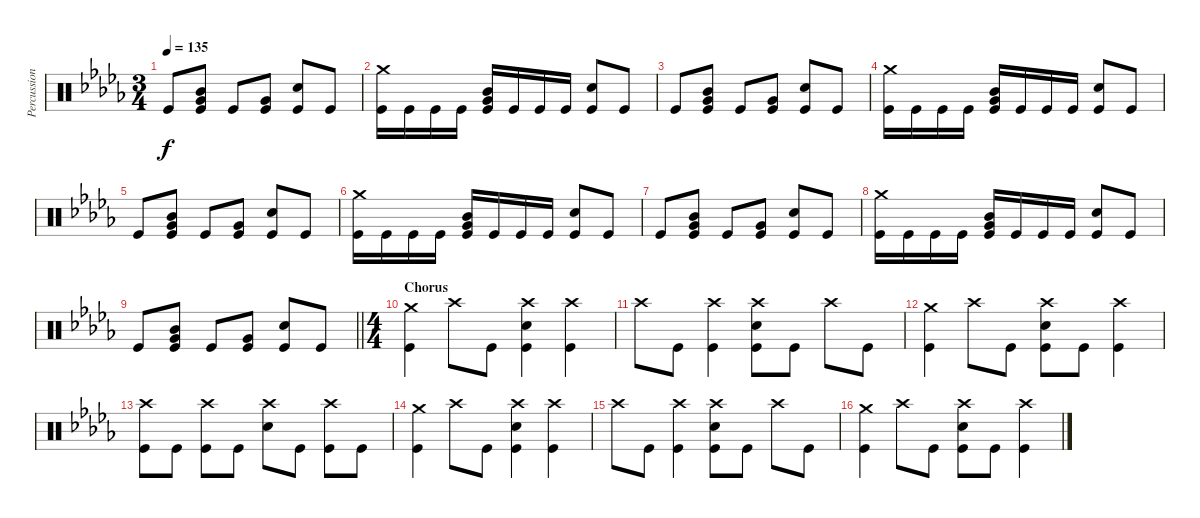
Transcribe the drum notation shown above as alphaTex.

\track ("Percussion" "Percussion") {instrument percussion}
\staff {score}
\articulation defaults
\ts (3 4)
\tempo 135
\clef neutral
\ks db "Kick (hit)".8{dy f}
("Mid Tom (hit)" "Very Low Tom (hit)" "Kick (hit)").8 "Kick (hit)".8 ("Very Low Tom (hit)" "Kick (hit)").8 ("Electric Snare (hit)" "Kick (hit)").8 "Kick (hit)".8 |
("Crash medium (hit)" "Kick (hit)").16 "Kick (hit)".16 "Kick (hit)".16 "Kick (hit)".16 ("Mid Tom (hit)" "Very Low Tom (hit)" "Kick (hit)").16 "Kick (hit)".16 "Kick (hit)".16 "Kick (hit)".16 ("Electric Snare (hit)" "Kick (hit)").8 "Kick (hit)".8 |
"Kick (hit)".8 ("Mid Tom (hit)" "Very Low Tom (hit)" "Kick (hit)").8 "Kick (hit)".8 ("Very Low Tom (hit)" "Kick (hit)").8 ("Electric Snare (hit)" "Kick (hit)").8 "Kick (hit)".8 |
("Crash medium (hit)" "Kick (hit)").16 "Kick (hit)".16 "Kick (hit)".16 "Kick (hit)".16 ("Mid Tom (hit)" "Very Low Tom (hit)" "Kick (hit)").16 "Kick (hit)".16 "Kick (hit)".16 "Kick (hit)".16 ("Electric Snare (hit)" "Kick (hit)").8 "Kick (hit)".8 |
"Kick (hit)".8 ("Mid Tom (hit)" "Very Low Tom (hit)" "Kick (hit)").8 "Kick (hit)".8 ("Very Low Tom (hit)" "Kick (hit)").8 ("Electric Snare (hit)" "Kick (hit)").8 "Kick (hit)".8 |
("Crash medium (hit)" "Kick (hit)").16 "Kick (hit)".16 "Kick (hit)".16 "Kick (hit)".16 ("Mid Tom (hit)" "Very Low Tom (hit)" "Kick (hit)").16 "Kick (hit)".16 "Kick (hit)".16 "Kick (hit)".16 ("Electric Snare (hit)" "Kick (hit)").8 "Kick (hit)".8 |
"Kick (hit)".8 ("Mid Tom (hit)" "Very Low Tom (hit)" "Kick (hit)").8 "Kick (hit)".8 ("Very Low Tom (hit)" "Kick (hit)").8 ("Electric Snare (hit)" "Kick (hit)").8 "Kick (hit)".8 |
("Crash medium (hit)" "Kick (hit)").16 "Kick (hit)".16 "Kick (hit)".16 "Kick (hit)".16 ("Mid Tom (hit)" "Very Low Tom (hit)" "Kick (hit)").16 "Kick (hit)".16 "Kick (hit)".16 "Kick (hit)".16 ("Electric Snare (hit)" "Kick (hit)").8 "Kick (hit)".8 |
\barLineRight lightlight "Kick (hit)".8
("Mid Tom (hit)" "Very Low Tom (hit)" "Kick (hit)").8 "Kick (hit)".8 ("Very Low Tom (hit)" "Kick (hit)").8 ("Electric Snare (hit)" "Kick (hit)").8 "Kick (hit)".8 |
\ts (4 4)
\section ("" "Chorus")
("Crash medium (hit)" "Kick (hit)").4 "Crash high (hit)".8 "Kick (hit)".8 ("Crash high (hit)" "Electric Snare (hit)" "Kick (hit)").4 ("Crash high (hit)" "Kick (hit)").4 |
"Crash high (hit)".8 "Kick (hit)".8 ("Crash high (hit)" "Kick (hit)").4 ("Crash high (hit)" "Electric Snare (hit)" "Kick (hit)").8 "Kick (hit)".8 "Crash high (hit)".8 "Kick (hit)".8 |
("Crash medium (hit)" "Kick (hit)").4 "Crash high (hit)".8 "Kick (hit)".8 ("Crash high (hit)" "Electric Snare (hit)" "Kick (hit)").8 "Kick (hit)".8 ("Crash high (hit)" "Kick (hit)").4 |
("Crash high (hit)" "Kick (hit)").8 "Kick (hit)".8 ("Crash high (hit)" "Kick (hit)").8 "Kick (hit)".8 ("Crash high (hit)" "Electric Snare (hit)").8 "Kick (hit)".8 ("Crash high (hit)" "Kick (hit)").8 "Kick (hit)".8 |
("Crash medium (hit)" "Kick (hit)").4 "Crash high (hit)".8 "Kick (hit)".8 ("Crash high (hit)" "Electric Snare (hit)" "Kick (hit)").4 ("Crash high (hit)" "Kick (hit)").4 |
"Crash high (hit)".8 "Kick (hit)".8 ("Crash high (hit)" "Kick (hit)").4 ("Crash high (hit)" "Electric Snare (hit)" "Kick (hit)").8 "Kick (hit)".8 "Crash high (hit)".8 "Kick (hit)".8 |
("Crash medium (hit)" "Kick (hit)").4 "Crash high (hit)".8 "Kick (hit)".8 ("Crash high (hit)" "Electric Snare (hit)" "Kick (hit)").8 "Kick (hit)".8 ("Crash high (hit)" "Kick (hit)").4
